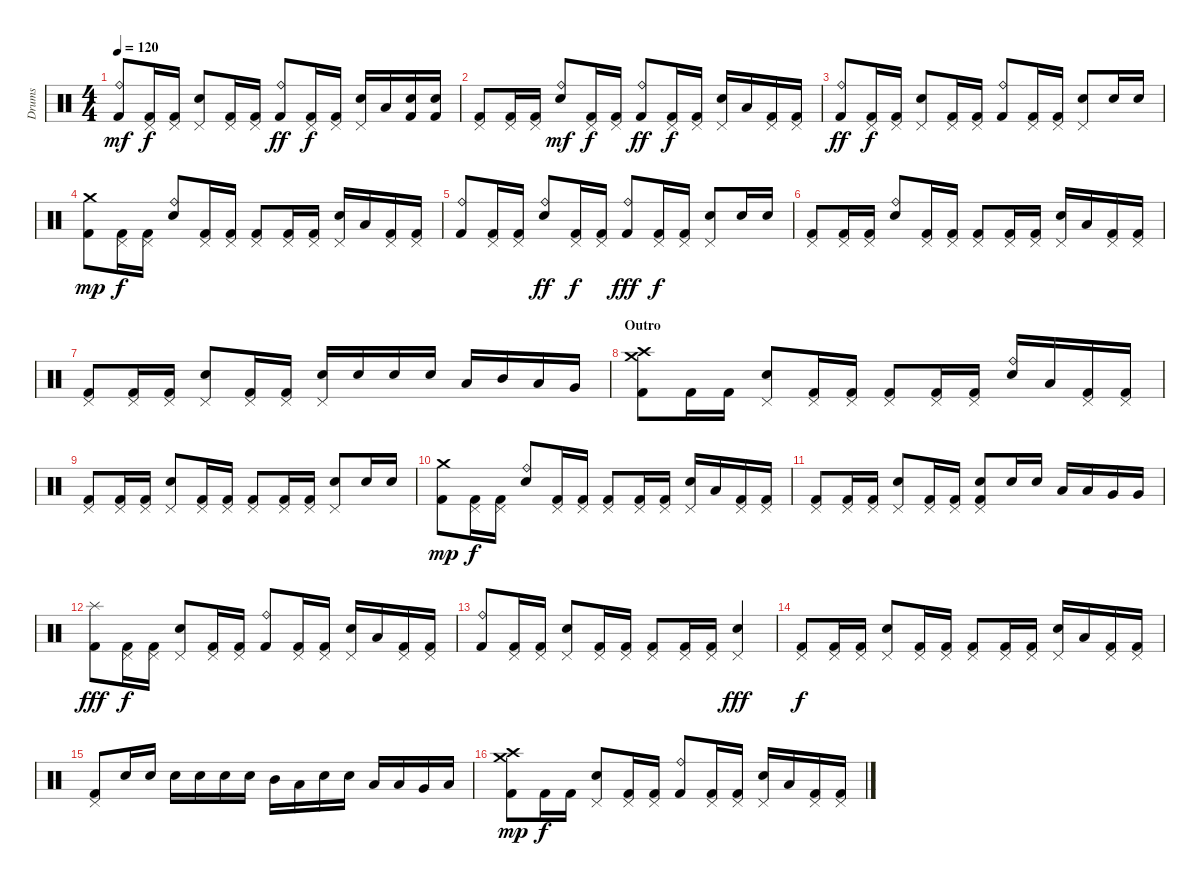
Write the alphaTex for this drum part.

\track ("Drums" "Drums") {instrument percussion}
\staff {score}
\articulation defaults
\ts (4 4)
\tempo 120
\clef neutral
\ks c
("Ride (bell)" "Kick (hit) 2").8{dy mf} ("Pedal Hi-Hat (hit)" "Kick (hit) 2").16{dy f} ("Pedal Hi-Hat (hit)" "Kick (hit) 2").16 ("Pedal Hi-Hat (hit)" "Electric Snare (hit)").8 ("Pedal Hi-Hat (hit)" "Kick (hit) 2").16 ("Pedal Hi-Hat (hit)" "Kick (hit) 2").16 ("Ride (bell)" "Kick (hit) 2").8{dy ff} ("Pedal Hi-Hat (hit)" "Kick (hit) 2").16{dy f} ("Pedal Hi-Hat (hit)" "Kick (hit) 2").16 ("Pedal Hi-Hat (hit)" "Electric Snare (hit)").16 "Low Tom (hit)".16 ("Electric Snare (hit)" "Kick (hit) 2").16 ("Electric Snare (hit)" "Kick (hit) 2").16 |
("Pedal Hi-Hat (hit)" "Kick (hit) 2").8 ("Pedal Hi-Hat (hit)" "Kick (hit) 2").16 ("Pedal Hi-Hat (hit)" "Kick (hit) 2").16 ("Ride (bell)" "Electric Snare (hit)").8{dy mf} ("Pedal Hi-Hat (hit)" "Kick (hit) 2").16{dy f} ("Pedal Hi-Hat (hit)" "Kick (hit) 2").16 ("Ride (bell)" "Kick (hit) 2").8{dy ff} ("Pedal Hi-Hat (hit)" "Kick (hit) 2").16{dy f} ("Pedal Hi-Hat (hit)" "Kick (hit) 2").16 ("Pedal Hi-Hat (hit)" "Electric Snare (hit)").16 "Low Tom (hit)".16 ("Pedal Hi-Hat (hit)" "Kick (hit) 2").16 ("Pedal Hi-Hat (hit)" "Kick (hit) 2").16 |
("Ride (bell)" "Kick (hit) 2").8{dy ff} ("Pedal Hi-Hat (hit)" "Kick (hit) 2").16{dy f} ("Pedal Hi-Hat (hit)" "Kick (hit) 2").16 ("Pedal Hi-Hat (hit)" "Electric Snare (hit)").8 ("Pedal Hi-Hat (hit)" "Kick (hit) 2").16 ("Pedal Hi-Hat (hit)" "Kick (hit) 2").16 ("Ride (bell)" "Kick (hit) 2").8 ("Pedal Hi-Hat (hit)" "Kick (hit) 2").16 ("Pedal Hi-Hat (hit)" "Kick (hit) 2").16 ("Pedal Hi-Hat (hit)" "Electric Snare (hit)").8 "Electric Snare (hit)".16 "Electric Snare (hit)".16 |
("Crash medium (hit)" "Kick (hit) 2").8{dy mp} ("Pedal Hi-Hat (hit)" "Kick (hit) 2").16{dy f} ("Pedal Hi-Hat (hit)" "Kick (hit) 2").16 ("Ride (bell)" "Electric Snare (hit)").8 ("Pedal Hi-Hat (hit)" "Kick (hit) 2").16 ("Pedal Hi-Hat (hit)" "Kick (hit) 2").16 ("Pedal Hi-Hat (hit)" "Kick (hit) 2").8 ("Pedal Hi-Hat (hit)" "Kick (hit) 2").16 ("Pedal Hi-Hat (hit)" "Kick (hit) 2").16 ("Pedal Hi-Hat (hit)" "Electric Snare (hit)").16 "Low Tom (hit)".16 ("Pedal Hi-Hat (hit)" "Kick (hit) 2").16 ("Pedal Hi-Hat (hit)" "Kick (hit) 2").16 |
("Ride (bell)" "Kick (hit) 2").8 ("Pedal Hi-Hat (hit)" "Kick (hit) 2").16 ("Pedal Hi-Hat (hit)" "Kick (hit) 2").16 ("Ride (bell)" "Electric Snare (hit)").8{dy ff} ("Pedal Hi-Hat (hit)" "Kick (hit) 2").16{dy f} ("Pedal Hi-Hat (hit)" "Kick (hit) 2").16 ("Ride (bell)" "Kick (hit) 2").8{dy fff} ("Pedal Hi-Hat (hit)" "Kick (hit) 2").16{dy f} ("Pedal Hi-Hat (hit)" "Kick (hit) 2").16 ("Pedal Hi-Hat (hit)" "Electric Snare (hit)").8 "Electric Snare (hit)".16 "Electric Snare (hit)".16 |
("Pedal Hi-Hat (hit)" "Kick (hit) 2").8 ("Pedal Hi-Hat (hit)" "Kick (hit) 2").16 ("Pedal Hi-Hat (hit)" "Kick (hit) 2").16 ("Ride (bell)" "Electric Snare (hit)").8 ("Pedal Hi-Hat (hit)" "Kick (hit) 2").16 ("Pedal Hi-Hat (hit)" "Kick (hit) 2").16 ("Pedal Hi-Hat (hit)" "Kick (hit) 2").8 ("Pedal Hi-Hat (hit)" "Kick (hit) 2").16 ("Pedal Hi-Hat (hit)" "Kick (hit) 2").16 ("Pedal Hi-Hat (hit)" "Electric Snare (hit)").16 "Low Tom (hit)".16 ("Pedal Hi-Hat (hit)" "Kick (hit) 2").16 ("Pedal Hi-Hat (hit)" "Kick (hit) 2").16 |
("Pedal Hi-Hat (hit)" "Kick (hit) 2").8 ("Pedal Hi-Hat (hit)" "Kick (hit) 2").16 ("Pedal Hi-Hat (hit)" "Kick (hit) 2").16 ("Pedal Hi-Hat (hit)" "Electric Snare (hit)").8 ("Pedal Hi-Hat (hit)" "Kick (hit) 2").16 ("Pedal Hi-Hat (hit)" "Kick (hit) 2").16 ("Pedal Hi-Hat (hit)" "Electric Snare (hit)").16 "Electric Snare (hit)".16 "Electric Snare (hit)".16 "Electric Snare (hit)".16 "Low Tom (hit)".16 "Mid Tom (hit)".16 "Low Tom (hit)".16 "Very Low Tom (hit)".16 |
\section ("" "Outro")
("Crash medium (hit)" "Crash high (hit)" "Kick (hit) 2").8 "Kick (hit) 2".16 "Kick (hit) 2".16 ("Pedal Hi-Hat (hit)" "Electric Snare (hit)").8 ("Pedal Hi-Hat (hit)" "Kick (hit) 2").16 ("Pedal Hi-Hat (hit)" "Kick (hit) 2").16 ("Pedal Hi-Hat (hit)" "Kick (hit) 2").8 ("Pedal Hi-Hat (hit)" "Kick (hit) 2").16 ("Pedal Hi-Hat (hit)" "Kick (hit) 2").16 ("Ride (bell)" "Electric Snare (hit)").16 "Low Tom (hit)".16 ("Pedal Hi-Hat (hit)" "Kick (hit) 2").16 ("Pedal Hi-Hat (hit)" "Kick (hit) 2").16 |
("Pedal Hi-Hat (hit)" "Kick (hit) 2").8 ("Pedal Hi-Hat (hit)" "Kick (hit) 2").16 ("Pedal Hi-Hat (hit)" "Kick (hit) 2").16 ("Pedal Hi-Hat (hit)" "Electric Snare (hit)").8 ("Pedal Hi-Hat (hit)" "Kick (hit) 2").16 ("Pedal Hi-Hat (hit)" "Kick (hit) 2").16 ("Pedal Hi-Hat (hit)" "Kick (hit) 2").8 ("Pedal Hi-Hat (hit)" "Kick (hit) 2").16 ("Pedal Hi-Hat (hit)" "Kick (hit) 2").16 ("Pedal Hi-Hat (hit)" "Electric Snare (hit)").8 "Electric Snare (hit)".16 "Electric Snare (hit)".16 |
("Crash medium (hit)" "Kick (hit) 2").8{dy mp} ("Pedal Hi-Hat (hit)" "Kick (hit) 2").16{dy f} ("Pedal Hi-Hat (hit)" "Kick (hit) 2").16 ("Ride (bell)" "Electric Snare (hit)").8 ("Pedal Hi-Hat (hit)" "Kick (hit) 2").16 ("Pedal Hi-Hat (hit)" "Kick (hit) 2").16 ("Pedal Hi-Hat (hit)" "Kick (hit) 2").8 ("Pedal Hi-Hat (hit)" "Kick (hit) 2").16 ("Pedal Hi-Hat (hit)" "Kick (hit) 2").16 ("Pedal Hi-Hat (hit)" "Electric Snare (hit)").16 "Low Tom (hit)".16 ("Pedal Hi-Hat (hit)" "Kick (hit) 2").16 ("Pedal Hi-Hat (hit)" "Kick (hit) 2").16 |
("Pedal Hi-Hat (hit)" "Kick (hit) 2").8 ("Pedal Hi-Hat (hit)" "Kick (hit) 2").16 ("Pedal Hi-Hat (hit)" "Kick (hit) 2").16 ("Pedal Hi-Hat (hit)" "Electric Snare (hit)").8 ("Pedal Hi-Hat (hit)" "Kick (hit) 2").16 ("Pedal Hi-Hat (hit)" "Kick (hit) 2").16 ("Pedal Hi-Hat (hit)" "Electric Snare (hit)" "Kick (hit) 2").8 "Electric Snare (hit)".16 "Electric Snare (hit)".16 "Low Tom (hit)".16 "Low Tom (hit)".16 "Very Low Tom (hit)".16 "Very Low Tom (hit)".16 |
("Splash (hit)" "Kick (hit) 2").8{dy fff} ("Pedal Hi-Hat (hit)" "Kick (hit) 2").16{dy f} ("Pedal Hi-Hat (hit)" "Kick (hit) 2").16 ("Pedal Hi-Hat (hit)" "Electric Snare (hit)").8 ("Pedal Hi-Hat (hit)" "Kick (hit) 2").16 ("Pedal Hi-Hat (hit)" "Kick (hit) 2").16 ("Ride (bell)" "Kick (hit) 2").8 ("Pedal Hi-Hat (hit)" "Kick (hit) 2").16 ("Pedal Hi-Hat (hit)" "Kick (hit) 2").16 ("Pedal Hi-Hat (hit)" "Electric Snare (hit)").16 "Low Tom (hit)".16 ("Pedal Hi-Hat (hit)" "Kick (hit) 2").16 ("Pedal Hi-Hat (hit)" "Kick (hit) 2").16 |
("Ride (bell)" "Kick (hit) 2").8 ("Pedal Hi-Hat (hit)" "Kick (hit) 2").16 ("Pedal Hi-Hat (hit)" "Kick (hit) 2").16 ("Pedal Hi-Hat (hit)" "Electric Snare (hit)").8 ("Pedal Hi-Hat (hit)" "Kick (hit) 2").16 ("Pedal Hi-Hat (hit)" "Kick (hit) 2").16 ("Pedal Hi-Hat (hit)" "Kick (hit) 2").8 ("Pedal Hi-Hat (hit)" "Kick (hit) 2").16 ("Pedal Hi-Hat (hit)" "Kick (hit) 2").16 ("Pedal Hi-Hat (hit)" "Electric Snare (hit)").4{dy fff} |
("Pedal Hi-Hat (hit)" "Kick (hit) 2").8{dy f} ("Pedal Hi-Hat (hit)" "Kick (hit) 2").16 ("Pedal Hi-Hat (hit)" "Kick (hit) 2").16 ("Pedal Hi-Hat (hit)" "Electric Snare (hit)").8 ("Pedal Hi-Hat (hit)" "Kick (hit) 2").16 ("Pedal Hi-Hat (hit)" "Kick (hit) 2").16 ("Pedal Hi-Hat (hit)" "Kick (hit) 2").8 ("Pedal Hi-Hat (hit)" "Kick (hit) 2").16 ("Pedal Hi-Hat (hit)" "Kick (hit) 2").16 ("Pedal Hi-Hat (hit)" "Electric Snare (hit)").16 "Low Tom (hit)".16 ("Pedal Hi-Hat (hit)" "Kick (hit) 2").16 ("Pedal Hi-Hat (hit)" "Kick (hit) 2").16 |
("Pedal Hi-Hat (hit)" "Kick (hit) 2").8 "Electric Snare (hit)".16 "Electric Snare (hit)".16 "Electric Snare (hit)".16 "Electric Snare (hit)".16 "Electric Snare (hit)".16 "Electric Snare (hit)".16 "Mid Tom (hit)".16 "Low Tom (hit)".16 "Electric Snare (hit)".16 "Electric Snare (hit)".16 "Low Tom (hit)".16 "Low Tom (hit)".16 "Very Low Tom (hit)".16 "Low Floor Tom (hit)".16 |
("Crash medium (hit)" "Crash high (hit)" "Kick (hit) 2").8{dy mp volume 7} "Kick (hit) 2".16{dy f} "Kick (hit) 2".16 ("Pedal Hi-Hat (hit)" "Electric Snare (hit)").8 ("Pedal Hi-Hat (hit)" "Kick (hit) 2").16 ("Pedal Hi-Hat (hit)" "Kick (hit) 2").16 ("Ride (bell)" "Kick (hit) 2").8 ("Pedal Hi-Hat (hit)" "Kick (hit) 2").16 ("Pedal Hi-Hat (hit)" "Kick (hit) 2").16 ("Pedal Hi-Hat (hit)" "Electric Snare (hit)").16 "Low Tom (hit)".16 ("Pedal Hi-Hat (hit)" "Kick (hit) 2").16 ("Pedal Hi-Hat (hit)" "Kick (hit) 2").16
